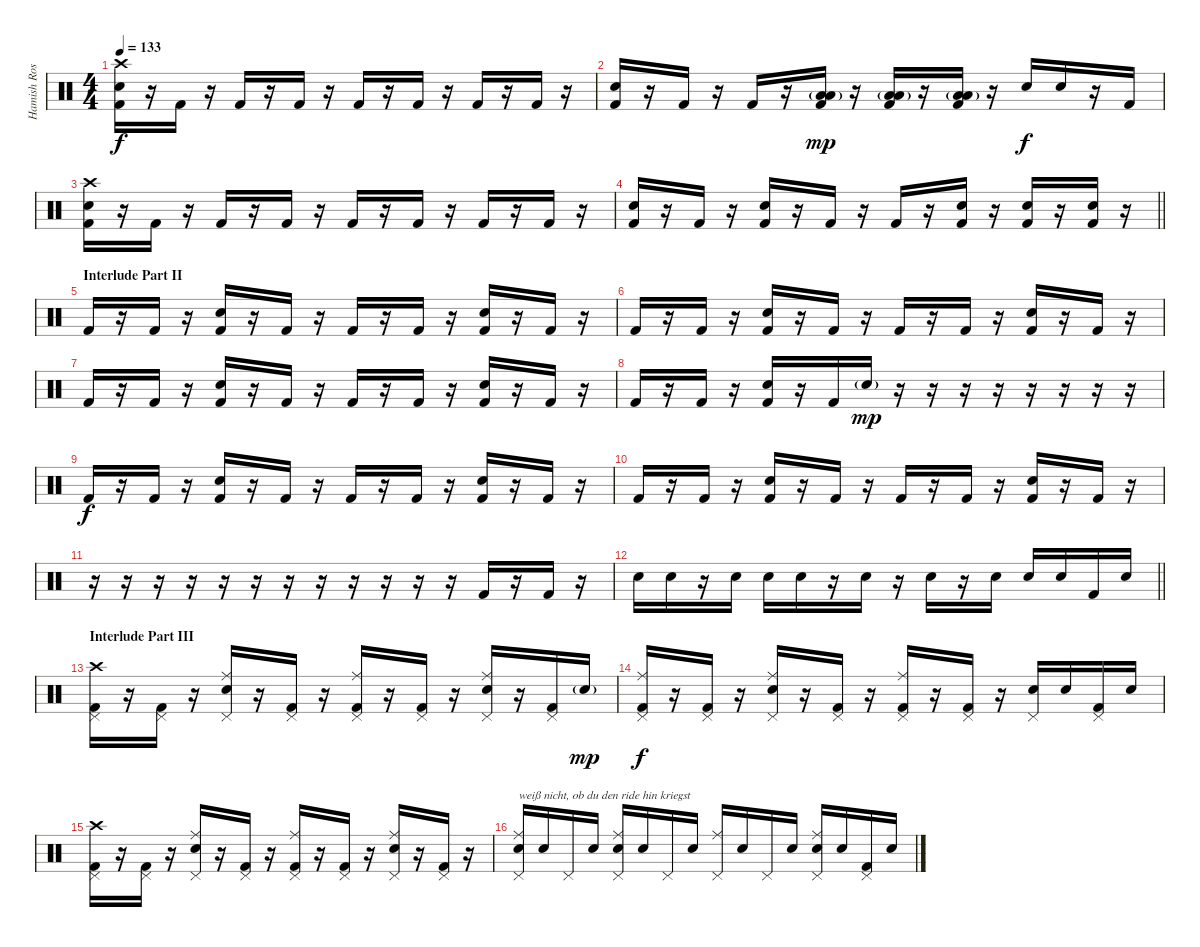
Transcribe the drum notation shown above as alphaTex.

\track ("Hamish Rosser (Main-Tune Drums Track)" "Hamish Ros") {instrument percussion}
\staff {score}
\articulation defaults
\ts (4 4)
\tempo 133
\clef neutral
\ks c
("Crash high (hit)" "Snare (hit) 2" "Kick (hit) 2").16{dy f} r.16 "Kick (hit) 2".16 r.16 "Kick (hit) 2".16 r.16 "Kick (hit) 2".16 r.16 "Kick (hit) 2".16 r.16 "Kick (hit) 2".16 r.16 "Kick (hit) 2".16 r.16 "Kick (hit) 2".16 r.16 |
("Snare (hit) 2" "Kick (hit) 2").16 r.16 "Kick (hit) 2".16 r.16 "Kick (hit) 2".16 r.16 ("Low Tom (hit)"{g} "Low Tom (hit)"{g} "Kick (hit) 2").16{bd 60 dy mp} r.16 ("Low Tom (hit)"{g} "Low Tom (hit)"{g} "Kick (hit) 2").16{bd 60} r.16 ("Low Tom (hit)"{g} "Low Tom (hit)"{g} "Kick (hit) 2").16{bd 60} r.16 "Snare (hit) 2".16{dy f} "Snare (hit) 2".16 r.16 "Kick (hit) 2".16 |
("Crash high (hit)" "Snare (hit) 2" "Kick (hit) 2").16 r.16 "Kick (hit) 2".16 r.16 "Kick (hit) 2".16 r.16 "Kick (hit) 2".16 r.16 "Kick (hit) 2".16 r.16 "Kick (hit) 2".16 r.16 "Kick (hit) 2".16 r.16 "Kick (hit) 2".16 r.16 |
\barLineRight lightlight
("Snare (hit) 2" "Kick (hit) 2").16 r.16 "Kick (hit) 2".16 r.16 ("Snare (hit) 2" "Kick (hit) 2").16 r.16 "Kick (hit) 2".16 r.16 "Kick (hit) 2".16 r.16 ("Snare (hit) 2" "Kick (hit) 2").16 r.16 ("Snare (hit) 2" "Kick (hit) 2").16 r.16 ("Snare (hit) 2" "Kick (hit) 2").16 r.16 |
\section ("" "Interlude Part II")
"Kick (hit) 2".16 r.16 "Kick (hit) 2".16 r.16 ("Snare (hit) 2" "Kick (hit) 2").16 r.16 "Kick (hit) 2".16 r.16 "Kick (hit) 2".16 r.16 "Kick (hit) 2".16 r.16 ("Snare (hit) 2" "Kick (hit) 2").16 r.16 "Kick (hit) 2".16 r.16 |
"Kick (hit) 2".16 r.16 "Kick (hit) 2".16 r.16 ("Snare (hit) 2" "Kick (hit) 2").16 r.16 "Kick (hit) 2".16 r.16 "Kick (hit) 2".16 r.16 "Kick (hit) 2".16 r.16 ("Snare (hit) 2" "Kick (hit) 2").16 r.16 "Kick (hit) 2".16 r.16 |
"Kick (hit) 2".16 r.16 "Kick (hit) 2".16 r.16 ("Snare (hit) 2" "Kick (hit) 2").16 r.16 "Kick (hit) 2".16 r.16 "Kick (hit) 2".16 r.16 "Kick (hit) 2".16 r.16 ("Snare (hit) 2" "Kick (hit) 2").16 r.16 "Kick (hit) 2".16 r.16 |
"Kick (hit) 2".16 r.16 "Kick (hit) 2".16 r.16 ("Snare (hit) 2" "Kick (hit) 2").16 r.16 "Kick (hit) 2".16 "Snare (hit) 2"{g}.16{dy mp} r.16 r.16 r.16 r.16 r.16 r.16 r.16 r.16 |
"Kick (hit) 2".16{dy f} r.16 "Kick (hit) 2".16 r.16 ("Snare (hit) 2" "Kick (hit) 2").16 r.16 "Kick (hit) 2".16 r.16 "Kick (hit) 2".16 r.16 "Kick (hit) 2".16 r.16 ("Snare (hit) 2" "Kick (hit) 2").16 r.16 "Kick (hit) 2".16 r.16 |
"Kick (hit) 2".16 r.16 "Kick (hit) 2".16 r.16 ("Snare (hit) 2" "Kick (hit) 2").16 r.16 "Kick (hit) 2".16 r.16 "Kick (hit) 2".16 r.16 "Kick (hit) 2".16 r.16 ("Snare (hit) 2" "Kick (hit) 2").16 r.16 "Kick (hit) 2".16 r.16 |
r.16 r.16 r.16 r.16 r.16 r.16 r.16 r.16 r.16 r.16 r.16 r.16 "Kick (hit) 2".16 r.16 "Kick (hit) 2".16 r.16 |
\barLineRight lightlight "Snare (hit) 2".16 "Snare (hit) 2".16
r.16 "Snare (hit) 2".16 "Snare (hit) 2".16 "Snare (hit) 2".16 r.16 "Snare (hit) 2".16 r.16 "Snare (hit) 2".16 r.16 "Snare (hit) 2".16 "Snare (hit) 2".16 "Snare (hit) 2".16 "Kick (hit) 2".16 "Snare (hit) 2".16 |
\section ("" "Interlude Part III")
("Crash high (hit)" "Pedal Hi-Hat (hit)" "Kick (hit) 2").16 r.16 ("Pedal Hi-Hat (hit)" "Kick (hit) 2").16 r.16 ("Ride (middle)" "Pedal Hi-Hat (hit)" "Snare (hit) 2").16 r.16 ("Pedal Hi-Hat (hit)" "Kick (hit) 2").16 r.16 ("Ride (middle)" "Pedal Hi-Hat (hit)" "Kick (hit) 2").16 r.16 ("Pedal Hi-Hat (hit)" "Kick (hit) 2").16 r.16 ("Ride (middle)" "Pedal Hi-Hat (hit)" "Snare (hit) 2").16 r.16 ("Pedal Hi-Hat (hit)" "Kick (hit) 2").16 "Snare (hit) 2"{g}.16{dy mp} |
("Ride (middle)" "Pedal Hi-Hat (hit)" "Kick (hit) 2").16{dy f} r.16 ("Pedal Hi-Hat (hit)" "Kick (hit) 2").16 r.16 ("Ride (middle)" "Pedal Hi-Hat (hit)" "Snare (hit) 2").16 r.16 ("Pedal Hi-Hat (hit)" "Kick (hit) 2").16 r.16 ("Ride (middle)" "Pedal Hi-Hat (hit)" "Kick (hit) 2").16 r.16 ("Pedal Hi-Hat (hit)" "Kick (hit) 2").16 r.16 ("Pedal Hi-Hat (hit)" "Snare (hit) 2").16 "Snare (hit) 2".16 ("Pedal Hi-Hat (hit)" "Kick (hit) 2").16 "Snare (hit) 2".16 |
("Crash high (hit)" "Pedal Hi-Hat (hit)" "Kick (hit) 2").16 r.16 ("Pedal Hi-Hat (hit)" "Kick (hit) 2").16 r.16 ("Ride (middle)" "Pedal Hi-Hat (hit)" "Snare (hit) 2").16 r.16 ("Pedal Hi-Hat (hit)" "Kick (hit) 2").16 r.16 ("Ride (middle)" "Pedal Hi-Hat (hit)" "Kick (hit) 2").16 r.16 ("Pedal Hi-Hat (hit)" "Kick (hit) 2").16 r.16 ("Ride (middle)" "Pedal Hi-Hat (hit)" "Snare (hit) 2").16 r.16 ("Pedal Hi-Hat (hit)" "Kick (hit) 2").16 r.16 |
("Ride (middle)" "Pedal Hi-Hat (hit)" "Snare (hit) 2").16{txt "weiß nicht, ob du den ride hin kriegst"} "Snare (hit) 2".16 "Pedal Hi-Hat (hit)".16 "Snare (hit) 2".16 ("Ride (middle)" "Pedal Hi-Hat (hit)" "Snare (hit) 2").16 "Snare (hit) 2".16 "Pedal Hi-Hat (hit)".16 "Snare (hit) 2".16 ("Ride (middle)" "Pedal Hi-Hat (hit)").16 "Snare (hit) 2".16 "Pedal Hi-Hat (hit)".16 "Snare (hit) 2".16 ("Ride (middle)" "Pedal Hi-Hat (hit)" "Snare (hit) 2").16 "Snare (hit) 2".16 ("Pedal Hi-Hat (hit)" "Kick (hit) 2").16 "Snare (hit) 2".16
